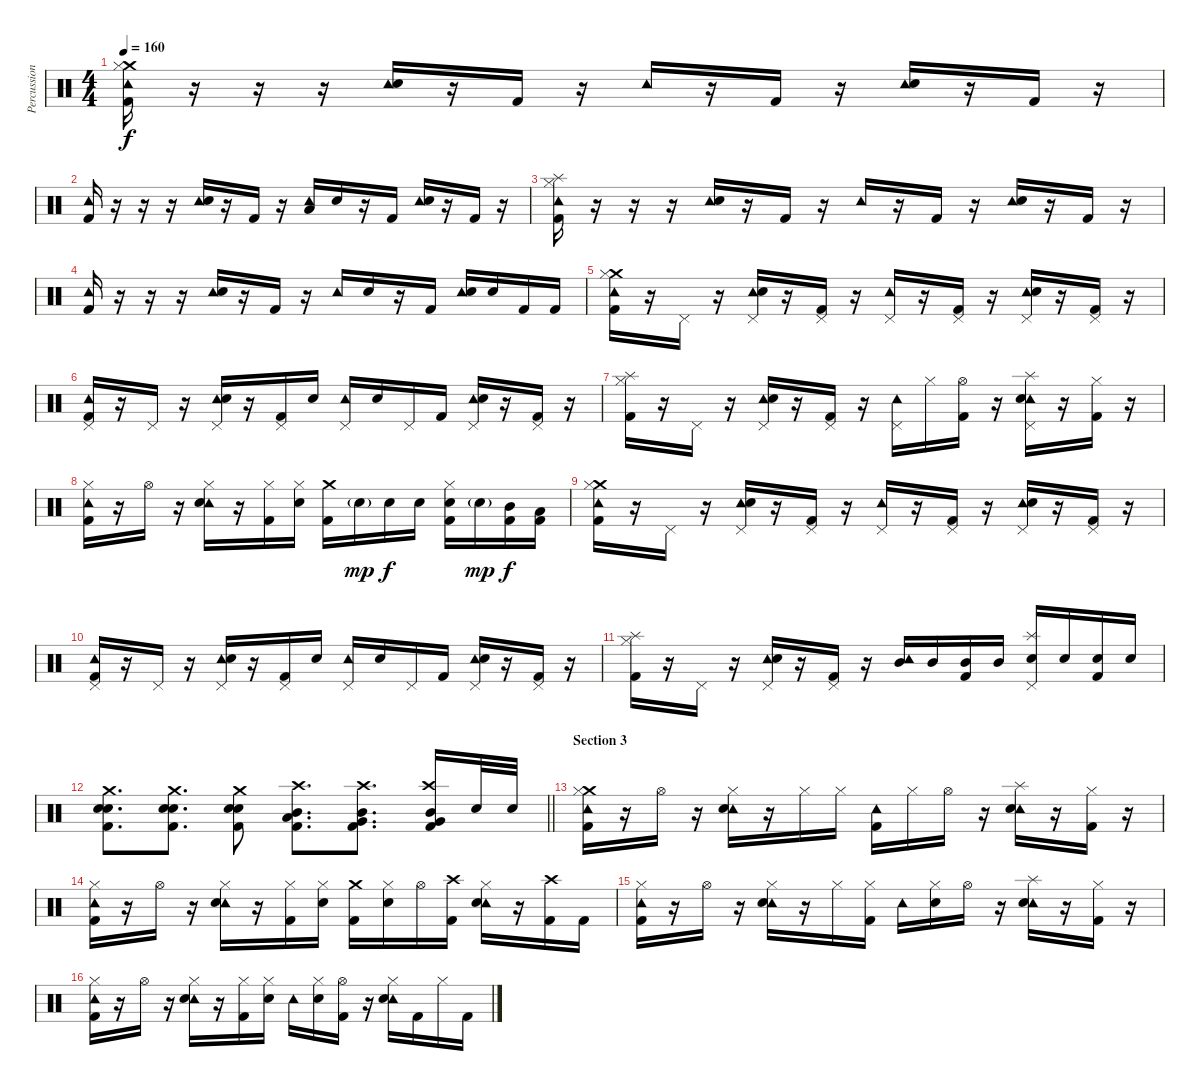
\track ("Percussion" "Percussion") {instrument percussion}
\staff {score}
\articulation defaults
\ts (4 4)
\tempo 160
\clef neutral
\ks c
("Crash medium (hit)" "Tambourine (hit)" "Hi-Hat (closed)" "Kick (hit) 2").16{dy f} r.16 r.16 r.16 ("Tambourine (hit)" "Electric Snare (hit)").16 r.16 "Kick (hit) 2".16 r.16 "Tambourine (hit)".16 r.16 "Kick (hit) 2".16 r.16 ("Tambourine (hit)" "Electric Snare (hit)").16 r.16 "Kick (hit) 2".16 r.16 |
("Tambourine (hit)" "Kick (hit) 2").16 r.16 r.16 r.16 ("Tambourine (hit)" "Electric Snare (hit)").16 r.16 "Kick (hit) 2".16 r.16 ("Tambourine (hit)" "Low Tom (hit)").16 "Electric Snare (hit)".16 r.16 "Kick (hit) 2".16 ("Tambourine (hit)" "Electric Snare (hit)").16 r.16 "Kick (hit) 2".16 r.16 |
("Splash (hit)" "Tambourine (hit)" "Hi-Hat (closed)" "Kick (hit) 2").16 r.16 r.16 r.16 ("Tambourine (hit)" "Electric Snare (hit)").16 r.16 "Kick (hit) 2".16 r.16 "Tambourine (hit)".16 r.16 "Kick (hit) 2".16 r.16 ("Tambourine (hit)" "Electric Snare (hit)").16 r.16 "Kick (hit) 2".16 r.16 |
("Tambourine (hit)" "Kick (hit) 2").16 r.16 r.16 r.16 ("Tambourine (hit)" "Electric Snare (hit)").16 r.16 "Kick (hit) 2".16 r.16 "Tambourine (hit)".16 "Electric Snare (hit)".16 r.16 "Kick (hit) 2".16 ("Tambourine (hit)" "Electric Snare (hit)").16 "Electric Snare (hit)".16 "Kick (hit) 2".16 "Kick (hit) 2".16 |
("Crash medium (hit)" "Tambourine (hit)" "Hi-Hat (closed)" "Kick (hit) 2").16 r.16 "Pedal Hi-Hat (hit)".16 r.16 ("Tambourine (hit)" "Pedal Hi-Hat (hit)" "Electric Snare (hit)").16 r.16 ("Pedal Hi-Hat (hit)" "Kick (hit) 2").16 r.16 ("Tambourine (hit)" "Pedal Hi-Hat (hit)").16 r.16 ("Pedal Hi-Hat (hit)" "Kick (hit) 2").16 r.16 ("Tambourine (hit)" "Pedal Hi-Hat (hit)" "Electric Snare (hit)").16 r.16 ("Pedal Hi-Hat (hit)" "Kick (hit) 2").16 r.16 |
("Tambourine (hit)" "Pedal Hi-Hat (hit)" "Kick (hit) 2").16 r.16 "Pedal Hi-Hat (hit)".16 r.16 ("Tambourine (hit)" "Pedal Hi-Hat (hit)" "Electric Snare (hit)").16 r.16 ("Pedal Hi-Hat (hit)" "Kick (hit) 2").16 "Electric Snare (hit)".16 ("Tambourine (hit)" "Pedal Hi-Hat (hit)").16 "Electric Snare (hit)".16 "Pedal Hi-Hat (hit)".16 "Kick (hit) 2".16 ("Tambourine (hit)" "Pedal Hi-Hat (hit)" "Electric Snare (hit)").16 r.16 ("Pedal Hi-Hat (hit)" "Kick (hit) 2").16 r.16 |
("Splash (hit)" "Hi-Hat (closed)" "Kick (hit) 2").16 r.16 "Pedal Hi-Hat (hit)".16 r.16 ("Tambourine (hit)" "Pedal Hi-Hat (hit)" "Electric Snare (hit)").16 r.16 ("Pedal Hi-Hat (hit)" "Kick (hit) 2").16 r.16 ("Tambourine (hit)" "Pedal Hi-Hat (hit)").16 "Hi-Hat (closed)".16 ("Hi-Hat (open)" "Kick (hit) 2").16 r.16 ("Tambourine (hit)" "Pedal Hi-Hat (hit)" "Electric Snare (hit)" "Splash (hit)").16 r.16 ("Hi-Hat (closed)" "Kick (hit) 2").16 r.16 |
("Tambourine (hit)" "Hi-Hat (closed)" "Kick (hit) 2").16 r.16 "Hi-Hat (open)".16 r.16 ("Tambourine (hit)" "Hi-Hat (closed)" "Electric Snare (hit)").16 r.16 ("Hi-Hat (closed)" "Kick (hit) 2").16 ("Electric Snare (hit)" "Hi-Hat (closed)").16 ("Crash medium (hit)" "Kick (hit) 2").16 "Electric Snare (hit)"{g}.16{dy mp} "Electric Snare (hit)".16{dy f} "Electric Snare (hit)".16 ("Electric Snare (hit)" "Hi-Hat (closed)" "Kick (hit) 2").16 "Electric Snare (hit)"{g}.16{dy mp} ("Kick (hit) 2" "Mid Tom (hit)").16{dy f} ("Kick (hit) 2" "Low Tom (hit)").16 |
("Crash medium (hit)" "Tambourine (hit)" "Hi-Hat (closed)" "Kick (hit) 2").16 r.16 "Pedal Hi-Hat (hit)".16 r.16 ("Tambourine (hit)" "Pedal Hi-Hat (hit)" "Electric Snare (hit)").16 r.16 ("Pedal Hi-Hat (hit)" "Kick (hit) 2").16 r.16 ("Tambourine (hit)" "Pedal Hi-Hat (hit)").16 r.16 ("Pedal Hi-Hat (hit)" "Kick (hit) 2").16 r.16 ("Tambourine (hit)" "Pedal Hi-Hat (hit)" "Electric Snare (hit)").16 r.16 ("Pedal Hi-Hat (hit)" "Kick (hit) 2").16 r.16 |
("Tambourine (hit)" "Pedal Hi-Hat (hit)" "Kick (hit) 2").16 r.16 "Pedal Hi-Hat (hit)".16 r.16 ("Tambourine (hit)" "Pedal Hi-Hat (hit)" "Electric Snare (hit)").16 r.16 ("Pedal Hi-Hat (hit)" "Kick (hit) 2").16 "Electric Snare (hit)".16 ("Tambourine (hit)" "Pedal Hi-Hat (hit)").16 "Electric Snare (hit)".16 "Pedal Hi-Hat (hit)".16 "Kick (hit) 2".16 ("Tambourine (hit)" "Pedal Hi-Hat (hit)" "Electric Snare (hit)").16 r.16 ("Pedal Hi-Hat (hit)" "Kick (hit) 2").16 r.16 |
("Splash (hit)" "Hi-Hat (closed)" "Kick (hit) 2").16 r.16 "Pedal Hi-Hat (hit)".16 r.16 ("Tambourine (hit)" "Pedal Hi-Hat (hit)" "Electric Snare (hit)").16 r.16 ("Pedal Hi-Hat (hit)" "Kick (hit) 2").16 r.16 ("Tambourine (hit)" "Mid Tom (hit)").16 "Mid Tom (hit)".16 ("Mid Tom (hit)" "Kick (hit) 2").16 "Mid Tom (hit)".16 ("Pedal Hi-Hat (hit)" "Electric Snare (hit)" "Splash (hit)").16 "Electric Snare (hit)".16 ("Electric Snare (hit)" "Kick (hit) 2").16 "Electric Snare (hit)".16 |
\barLineRight lightlight
("Crash medium (hit)" "Kick (hit) 2" "Electric Snare (hit)" "Electric Snare (hit)").8{d bd 60} ("Crash medium (hit)" "Kick (hit) 2" "Electric Snare (hit)" "Electric Snare (hit)").8{d bd 60} ("Crash medium (hit)" "Kick (hit) 2" "Electric Snare (hit)" "Electric Snare (hit)").8{bd 60} ("Crash high (hit)" "Kick (hit) 2" "Mid Tom (hit)" "Low Tom (hit)").8{d bd 60} ("Crash high (hit)" "Kick (hit) 2" "Mid Tom (hit)" "Very Low Tom (hit)").8{d bd 60} ("Crash high (hit)" "Kick (hit) 2" "Mid Tom (hit)" "Very Low Tom (hit)").16{bd 60} "Electric Snare (hit)".32 "Electric Snare (hit)".32 |
\section ("" "Section 3")
("Crash medium (hit)" "Tambourine (hit)" "Hi-Hat (closed)" "Kick (hit) 2").16 r.16 "Hi-Hat (open)".16 r.16 ("Tambourine (hit)" "Hi-Hat (closed)" "Electric Snare (hit)").16 r.16 "Hi-Hat (closed)".16 "Hi-Hat (closed)".16 ("Tambourine (hit)" "Kick (hit) 2").16 "Hi-Hat (closed)".16 "Hi-Hat (open)".16 r.16 ("Tambourine (hit)" "Electric Snare (hit)" "Splash (hit)").16 r.16 ("Hi-Hat (closed)" "Kick (hit) 2").16 r.16 |
("Tambourine (hit)" "Hi-Hat (closed)" "Kick (hit) 2").16 r.16 "Hi-Hat (open)".16 r.16 ("Tambourine (hit)" "Hi-Hat (closed)" "Electric Snare (hit)").16 r.16 ("Hi-Hat (closed)" "Kick (hit) 2").16 ("Electric Snare (hit)" "Hi-Hat (closed)").16 ("Crash medium (hit)" "Kick (hit) 2").16 ("Hi-Hat (closed)" "Electric Snare (hit)").16 "Hi-Hat (open)".16 ("Crash high (hit)" "Kick (hit) 2").16 ("Tambourine (hit)" "Hi-Hat (closed)" "Electric Snare (hit)").16 r.16 ("Crash high (hit)" "Kick (hit) 2").16 "Kick (hit) 2".16 |
("Tambourine (hit)" "Hi-Hat (closed)" "Kick (hit) 2").16 r.16 "Hi-Hat (open)".16 r.16 ("Tambourine (hit)" "Hi-Hat (closed)" "Electric Snare (hit)").16 r.16 "Hi-Hat (closed)".16 ("Hi-Hat (closed)" "Kick (hit) 2").16 "Tambourine (hit)".16 ("Hi-Hat (closed)" "Electric Snare (hit)").16 "Hi-Hat (open)".16 r.16 ("Tambourine (hit)" "Electric Snare (hit)" "Splash (hit)").16 r.16 ("Hi-Hat (closed)" "Kick (hit) 2").16 r.16 |
("Tambourine (hit)" "Hi-Hat (closed)" "Kick (hit) 2").16 r.16 "Hi-Hat (open)".16 r.16 ("Tambourine (hit)" "Hi-Hat (closed)" "Electric Snare (hit)").16 r.16 ("Hi-Hat (closed)" "Kick (hit) 2").16 ("Electric Snare (hit)" "Hi-Hat (closed)").16 "Tambourine (hit)".16 ("Hi-Hat (closed)" "Electric Snare (hit)").16 ("Hi-Hat (open)" "Kick (hit) 2").16 r.16 ("Tambourine (hit)" "Hi-Hat (closed)" "Electric Snare (hit)").16 "Kick (hit) 2".16 "Hi-Hat (closed)".16 "Kick (hit) 2".16
